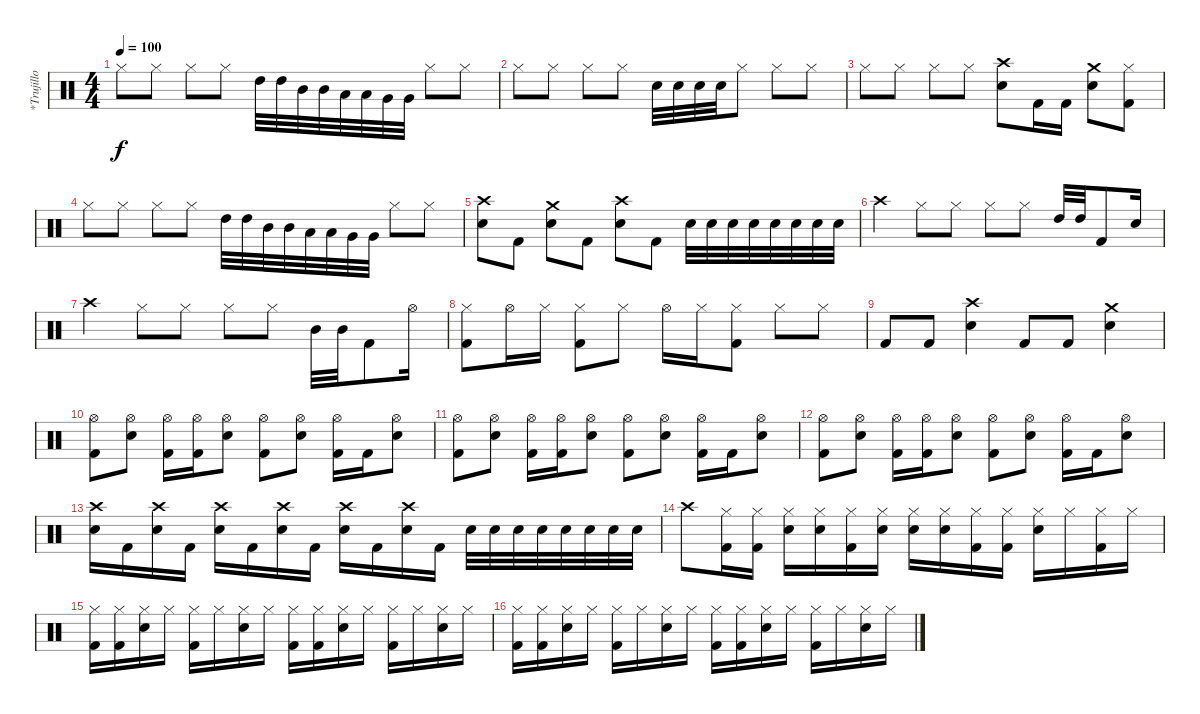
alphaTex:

\track ("*Trujillo" "*Trujillo") {instrument percussion}
\staff {score}
\articulation defaults
\ts (4 4)
\tempo 100
\clef neutral
\ks c "Hi-Hat (closed)".8{dy f} "Hi-Hat (closed)".8 "Hi-Hat (closed)".8 "Hi-Hat (closed)".8 "High Tom (hit)".32 "High Tom (hit)".32 "Mid Tom (hit)".32 "Mid Tom (hit)".32 "Low Tom (hit)".32 "Low Tom (hit)".32 "Very Low Tom (hit)".32 "Very Low Tom (hit)".32 "Hi-Hat (closed)".8 "Hi-Hat (closed)".8
|
"Hi-Hat (closed)".8 "Hi-Hat (closed)".8 "Hi-Hat (closed)".8 "Hi-Hat (closed)".8 "Electric Snare (hit)".32 "Electric Snare (hit)".32 "Electric Snare (hit)".32 "Electric Snare (hit)".32 "Hi-Hat (closed)".8 "Hi-Hat (closed)".8 "Hi-Hat (closed)".8 |
"Hi-Hat (closed)".8 "Hi-Hat (closed)".8 "Hi-Hat (closed)".8 "Hi-Hat (closed)".8 ("Crash high (hit)" "Electric Snare (hit)").8 "Kick (hit) 2".16 "Kick (hit) 2".16 ("Crash medium (hit)" "Electric Snare (hit)").8 ("Hi-Hat (closed)"{x} "Kick (hit) 2").8 |
"Hi-Hat (closed)".8 "Hi-Hat (closed)".8 "Hi-Hat (closed)".8 "Hi-Hat (closed)".8 "High Tom (hit)".32 "High Tom (hit)".32 "Mid Tom (hit)".32 "Mid Tom (hit)".32 "Low Tom (hit)".32 "Low Tom (hit)".32 "Very Low Tom (hit)".32 "Very Low Tom (hit)".32 "Hi-Hat (closed)".8 "Hi-Hat (closed)".8 |
("Crash high (hit)" "Electric Snare (hit)").8 "Kick (hit) 2".8 ("Crash medium (hit)" "Electric Snare (hit)").8 "Kick (hit) 2".8 ("Crash high (hit)" "Electric Snare (hit)").8 "Kick (hit) 2".8 "Electric Snare (hit)".32 "Electric Snare (hit)".32 "Electric Snare (hit)".32 "Electric Snare (hit)".32 "Electric Snare (hit)".32 "Electric Snare (hit)".32 "Electric Snare (hit)".32 "Electric Snare (hit)".32 |
"Crash high (hit)".4 "Hi-Hat (closed)".8 "Hi-Hat (closed)".8 "Hi-Hat (closed)".8 "Hi-Hat (closed)".8 "High Tom (hit)".32 "High Tom (hit)".32 "Kick (hit) 2".8 "Electric Snare (hit)".16 |
"Crash high (hit)".4 "Hi-Hat (closed)".8 "Hi-Hat (closed)".8 "Hi-Hat (closed)".8 "Hi-Hat (closed)".8 "Mid Tom (hit)".32 "Mid Tom (hit)".32 "Kick (hit) 2".8 "Hi-Hat (open)".16 |
("Hi-Hat (closed)" "Kick (hit) 2").8 "Hi-Hat (open)".16 "Hi-Hat (closed)".16 ("Hi-Hat (closed)" "Kick (hit) 2").8 "Hi-Hat (closed)".8 "Hi-Hat (open)".16 "Hi-Hat (closed)".16 ("Hi-Hat (closed)" "Kick (hit) 2").8 "Hi-Hat (closed)".8 "Hi-Hat (closed)".8 |
"Kick (hit) 2".8 "Kick (hit) 2".8 ("Crash high (hit)" "Electric Snare (hit)").4 "Kick (hit) 2".8 "Kick (hit) 2".8 ("Crash medium (hit)" "Electric Snare (hit)").4 |
("Hi-Hat (open)" "Kick (hit) 2").8 ("Hi-Hat (open)" "Electric Snare (hit)").8 ("Hi-Hat (open)" "Kick (hit) 2").16 ("Hi-Hat (open)"{x} "Kick (hit) 2").16 ("Hi-Hat (open)" "Electric Snare (hit)").8 ("Hi-Hat (open)" "Kick (hit) 2").8 ("Hi-Hat (open)" "Electric Snare (hit)").8 ("Hi-Hat (open)" "Kick (hit) 2").16 "Kick (hit) 2".16 ("Hi-Hat (open)" "Electric Snare (hit)").8 |
("Hi-Hat (open)" "Kick (hit) 2").8 ("Hi-Hat (open)" "Electric Snare (hit)").8 ("Hi-Hat (open)" "Kick (hit) 2").16 ("Hi-Hat (open)"{x} "Kick (hit) 2").16 ("Hi-Hat (open)" "Electric Snare (hit)").8 ("Hi-Hat (open)" "Kick (hit) 2").8 ("Hi-Hat (open)" "Electric Snare (hit)").8 ("Hi-Hat (open)" "Kick (hit) 2").16 "Kick (hit) 2".16 ("Hi-Hat (open)" "Electric Snare (hit)").8 |
("Hi-Hat (open)" "Kick (hit) 2").8 ("Hi-Hat (open)" "Electric Snare (hit)").8 ("Hi-Hat (open)" "Kick (hit) 2").16 ("Hi-Hat (open)"{x} "Kick (hit) 2").16 ("Hi-Hat (open)" "Electric Snare (hit)").8 ("Hi-Hat (open)" "Kick (hit) 2").8 ("Hi-Hat (open)" "Electric Snare (hit)").8 ("Hi-Hat (open)" "Kick (hit) 2").16 "Kick (hit) 2".16 ("Hi-Hat (open)" "Electric Snare (hit)").8 |
("Crash high (hit)" "Electric Snare (hit)").16 "Kick (hit) 2".16 ("Crash high (hit)" "Electric Snare (hit)").16 "Kick (hit) 2".16 ("Crash high (hit)" "Electric Snare (hit)").16 "Kick (hit) 2".16 ("Crash high (hit)" "Electric Snare (hit)").16 "Kick (hit) 2".16 ("Crash high (hit)" "Electric Snare (hit)").16 "Kick (hit) 2".16 ("Crash high (hit)" "Electric Snare (hit)").16 "Kick (hit) 2".16 "Electric Snare (hit)".32 "Electric Snare (hit)".32 "Electric Snare (hit)".32 "Electric Snare (hit)".32 "Electric Snare (hit)".32 "Electric Snare (hit)".32 "Electric Snare (hit)".32 "Electric Snare (hit)".32 |
"Crash high (hit)".8 ("Hi-Hat (closed)" "Kick (hit) 2").16 ("Hi-Hat (closed)" "Kick (hit) 2").16 ("Hi-Hat (closed)" "Electric Snare (hit)").16 ("Hi-Hat (closed)" "Electric Snare (hit)"{x}).16 ("Hi-Hat (closed)" "Kick (hit) 2").16 ("Hi-Hat (closed)" "Electric Snare (hit)"{x}).16 ("Hi-Hat (closed)" "Electric Snare (hit)").16 ("Hi-Hat (closed)" "Electric Snare (hit)"{x}).16 ("Hi-Hat (closed)" "Kick (hit) 2").16 ("Hi-Hat (closed)" "Kick (hit) 2").16 ("Hi-Hat (closed)" "Electric Snare (hit)").16 "Hi-Hat (closed)".16 ("Hi-Hat (closed)" "Kick (hit) 2").16 "Hi-Hat (closed)".16 |
("Hi-Hat (closed)" "Kick (hit) 2").16 ("Hi-Hat (closed)" "Kick (hit) 2").16 ("Hi-Hat (closed)" "Electric Snare (hit)").16 "Hi-Hat (closed)".16 ("Hi-Hat (closed)" "Kick (hit) 2").16 "Hi-Hat (closed)".16 ("Hi-Hat (closed)" "Electric Snare (hit)").16 "Hi-Hat (closed)".16 ("Hi-Hat (closed)" "Kick (hit) 2").16 ("Hi-Hat (closed)" "Kick (hit) 2").16 ("Hi-Hat (closed)" "Electric Snare (hit)").16 "Hi-Hat (closed)".16 ("Hi-Hat (closed)" "Kick (hit) 2").16 "Hi-Hat (closed)".16 ("Hi-Hat (closed)" "Electric Snare (hit)").16 "Hi-Hat (closed)".16 |
("Hi-Hat (closed)" "Kick (hit) 2").16 ("Hi-Hat (closed)" "Kick (hit) 2").16 ("Hi-Hat (closed)" "Electric Snare (hit)").16 "Hi-Hat (closed)".16 ("Hi-Hat (closed)" "Kick (hit) 2").16 "Hi-Hat (closed)".16 ("Hi-Hat (closed)" "Electric Snare (hit)").16 "Hi-Hat (closed)".16 ("Hi-Hat (closed)" "Kick (hit) 2").16 ("Hi-Hat (closed)" "Kick (hit) 2").16 ("Hi-Hat (closed)" "Electric Snare (hit)").16 "Hi-Hat (closed)".16 ("Hi-Hat (closed)" "Kick (hit) 2").16 "Hi-Hat (closed)".16 ("Hi-Hat (closed)" "Electric Snare (hit)").16 "Hi-Hat (closed)".16
